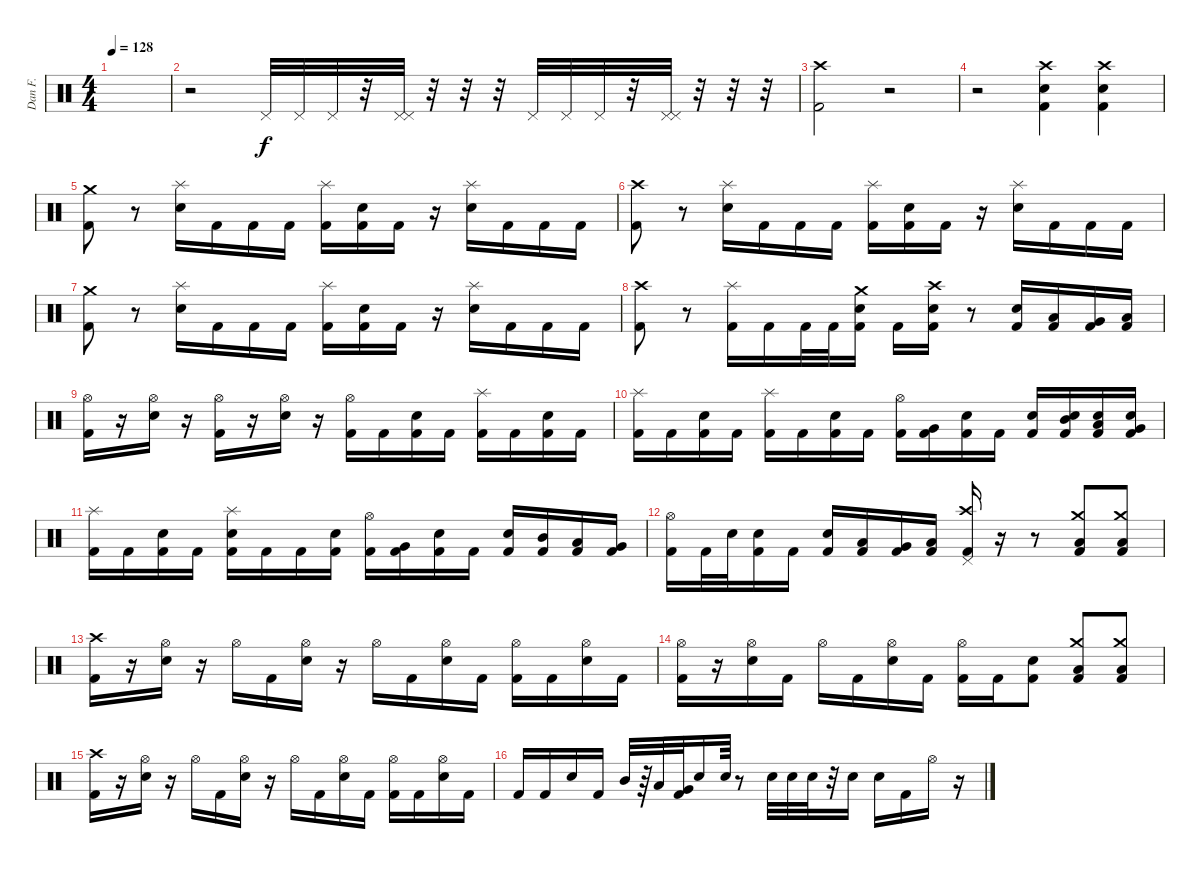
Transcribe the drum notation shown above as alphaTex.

\track ("Dan F." "Dan F.") {instrument percussion}
\staff {score}
\articulation defaults
\ts (4 4)
\tempo 128
\clef neutral
\ks c
|
r.2 "Pedal Hi-Hat (hit)".32 "Pedal Hi-Hat (hit)".32 "Pedal Hi-Hat (hit)".32 r.32 ("Pedal Hi-Hat (hit)" "Pedal Hi-Hat (hit)").32 r.32 r.32 r.32 "Pedal Hi-Hat (hit)".32 "Pedal Hi-Hat (hit)".32 "Pedal Hi-Hat (hit)".32 r.32 ("Pedal Hi-Hat (hit)" "Pedal Hi-Hat (hit)").32 r.32 r.32 r.32 |
("Crash high (hit)" "Kick (hit) 2").2 r.2 |
r.2 ("Crash high (hit)" "Electric Snare (hit)" "Kick (hit) 2").4 ("Crash high (hit)" "Electric Snare (hit)" "Kick (hit) 2").4 |
("Crash medium (hit)" "Kick (hit) 2").8 r.8 ("Splash (hit)" "Electric Snare (hit)").16 "Kick (hit) 2".16 "Kick (hit) 2".16 "Kick (hit) 2".16 ("Splash (hit)" "Kick (hit) 2").16 ("Electric Snare (hit)" "Kick (hit) 2").16 "Kick (hit) 2".16 r.16 ("Splash (hit)" "Electric Snare (hit)").16 "Kick (hit) 2".16 "Kick (hit) 2".16 "Kick (hit) 2".16 |
("Crash high (hit)" "Kick (hit) 2").8 r.8 ("Splash (hit)" "Electric Snare (hit)").16 "Kick (hit) 2".16 "Kick (hit) 2".16 "Kick (hit) 2".16 ("Splash (hit)" "Kick (hit) 2").16 ("Electric Snare (hit)" "Kick (hit) 2").16 "Kick (hit) 2".16 r.16 ("Splash (hit)" "Electric Snare (hit)").16 "Kick (hit) 2".16 "Kick (hit) 2".16 "Kick (hit) 2".16 |
("Crash medium (hit)" "Kick (hit) 2").8 r.8 ("Splash (hit)" "Electric Snare (hit)").16 "Kick (hit) 2".16 "Kick (hit) 2".16 "Kick (hit) 2".16 ("Splash (hit)" "Kick (hit) 2").16 ("Electric Snare (hit)" "Kick (hit) 2").16 "Kick (hit) 2".16 r.16 ("Splash (hit)" "Electric Snare (hit)").16 "Kick (hit) 2".16 "Kick (hit) 2".16 "Kick (hit) 2".16 |
("Crash high (hit)" "Kick (hit) 2").8 r.8 ("Splash (hit)" "Kick (hit) 2").16 "Kick (hit) 2".16 "Kick (hit) 2".32 "Kick (hit) 2".32 ("Crash medium (hit)" "Electric Snare (hit)" "Kick (hit) 2").16 "Kick (hit) 2".16 ("Crash high (hit)" "Electric Snare (hit)" "Kick (hit) 2").16 r.8 ("Electric Snare (hit)" "Kick (hit) 2").16 ("Low Tom (hit)" "Kick (hit) 2").16 ("Very Low Tom (hit)" "Kick (hit) 2").16 ("Low Floor Tom (hit)" "Kick (hit) 2").16 |
("Hi-Hat (open)" "Kick (hit) 2").16 r.16 ("Hi-Hat (open)" "Electric Snare (hit)").16 r.16 ("Hi-Hat (open)" "Kick (hit) 2").16 r.16 ("Hi-Hat (open)" "Electric Snare (hit)").16 r.16 ("Hi-Hat (open)" "Kick (hit) 2").16 "Kick (hit) 2".16 ("Electric Snare (hit)" "Kick (hit) 2").16 "Kick (hit) 2".16 ("Splash (hit)" "Kick (hit) 2").16 "Kick (hit) 2".16 ("Electric Snare (hit)" "Kick (hit) 2").16 "Kick (hit) 2".16 |
("Splash (hit)" "Kick (hit) 2").16 "Kick (hit) 2".16 ("Electric Snare (hit)" "Kick (hit) 2").16 "Kick (hit) 2".16 ("Splash (hit)" "Kick (hit) 2").16 "Kick (hit) 2".16 ("Electric Snare (hit)" "Kick (hit) 2").16 "Kick (hit) 2".16 ("Hi-Hat (open)" "Kick (hit) 2").16 ("Very Low Tom (hit)" "Kick (hit) 2").16 ("Electric Snare (hit)" "Kick (hit) 2").16 "Kick (hit) 2".16 ("Electric Snare (hit)" "Kick (hit) 2").16 ("Electric Snare (hit)" "Mid Tom (hit)" "Kick (hit) 2").16 ("Electric Snare (hit)" "Low Tom (hit)" "Kick (hit) 2").16 ("Electric Snare (hit)" "Very Low Tom (hit)" "Kick (hit) 2").16 |
("Splash (hit)" "Kick (hit) 2").16 "Kick (hit) 2".16 ("Electric Snare (hit)" "Kick (hit) 2").16 "Kick (hit) 2".16 ("Splash (hit)" "Electric Snare (hit)" "Kick (hit) 2").16 "Kick (hit) 2".16 "Kick (hit) 2".16 ("Electric Snare (hit)" "Kick (hit) 2").16 ("Hi-Hat (open)" "Kick (hit) 2").16 ("Very Low Tom (hit)" "Kick (hit) 2").16 ("Electric Snare (hit)" "Kick (hit) 2").16 "Kick (hit) 2".16 ("Electric Snare (hit)" "Kick (hit) 2").16 ("Mid Tom (hit)" "Kick (hit) 2").16 ("Low Tom (hit)" "Kick (hit) 2").16 ("Very Low Tom (hit)" "Kick (hit) 2").16 |
("Hi-Hat (open)" "Kick (hit) 2").16 "Kick (hit) 2".32 "Electric Snare (hit)".32 ("Electric Snare (hit)" "Kick (hit) 2").16 "Kick (hit) 2".16 ("Electric Snare (hit)" "Kick (hit) 2").16 ("Low Tom (hit)" "Kick (hit) 2").16 ("Very Low Tom (hit)" "Kick (hit) 2").16 ("Low Floor Tom (hit)" "Kick (hit) 2").16 ("Crash high (hit)" "Pedal Hi-Hat (hit)" "Kick (hit) 2").16 r.16 r.8 ("Crash medium (hit)" "Low Floor Tom (hit)" "Kick (hit) 2").8 ("Crash medium (hit)" "Low Floor Tom (hit)" "Kick (hit) 2").8 |
("Crash high (hit)" "Kick (hit) 2").16 r.16 ("Hi-Hat (open)" "Electric Snare (hit)").16 r.16 "Hi-Hat (open)".16 "Kick (hit) 2".16 ("Hi-Hat (open)" "Electric Snare (hit)").16 r.16 "Hi-Hat (open)".16 "Kick (hit) 2".16 ("Hi-Hat (open)" "Electric Snare (hit)").16 "Kick (hit) 2".16 ("Hi-Hat (open)" "Kick (hit) 2").16 "Kick (hit) 2".16 ("Hi-Hat (open)" "Electric Snare (hit)").16 "Kick (hit) 2".16 |
("Hi-Hat (open)" "Kick (hit) 2").16 r.16 ("Hi-Hat (open)" "Electric Snare (hit)").16 "Kick (hit) 2".16 "Hi-Hat (open)".16 "Kick (hit) 2".16 ("Hi-Hat (open)" "Electric Snare (hit)").16 "Kick (hit) 2".16 ("Hi-Hat (open)" "Kick (hit) 2").16 "Kick (hit) 2".16 ("Electric Snare (hit)" "Kick (hit) 2").8 ("Crash medium (hit)" "Low Floor Tom (hit)" "Kick (hit) 2").8 ("Crash medium (hit)" "Low Floor Tom (hit)" "Kick (hit) 2").8 |
("Crash high (hit)" "Kick (hit) 2").16 r.16 ("Hi-Hat (open)" "Electric Snare (hit)").16 r.16 "Hi-Hat (open)".16 "Kick (hit) 2".16 ("Hi-Hat (open)" "Electric Snare (hit)").16 r.16 "Hi-Hat (open)".16 "Kick (hit) 2".16 ("Hi-Hat (open)" "Electric Snare (hit)").16 "Kick (hit) 2".16 ("Hi-Hat (open)" "Kick (hit) 2").16 "Kick (hit) 2".16 ("Hi-Hat (open)" "Electric Snare (hit)").16 "Kick (hit) 2".16 |
"Kick (hit) 2".16 "Kick (hit) 2".16 "Electric Snare (hit)".16 "Kick (hit) 2".16 "Mid Tom (hit)".32 r.64 "Low Tom (hit)".32 ("Very Low Tom (hit)" "Kick (hit) 2").32 "Electric Snare (hit)".16 "Electric Snare (hit)".64 r.8 "Electric Snare (hit)".32 "Electric Snare (hit)".32 "Electric Snare (hit)".32 r.32 "Electric Snare (hit)".16 "Electric Snare (hit)".16 "Kick (hit) 2".16 "Hi-Hat (open)".16 r.16
